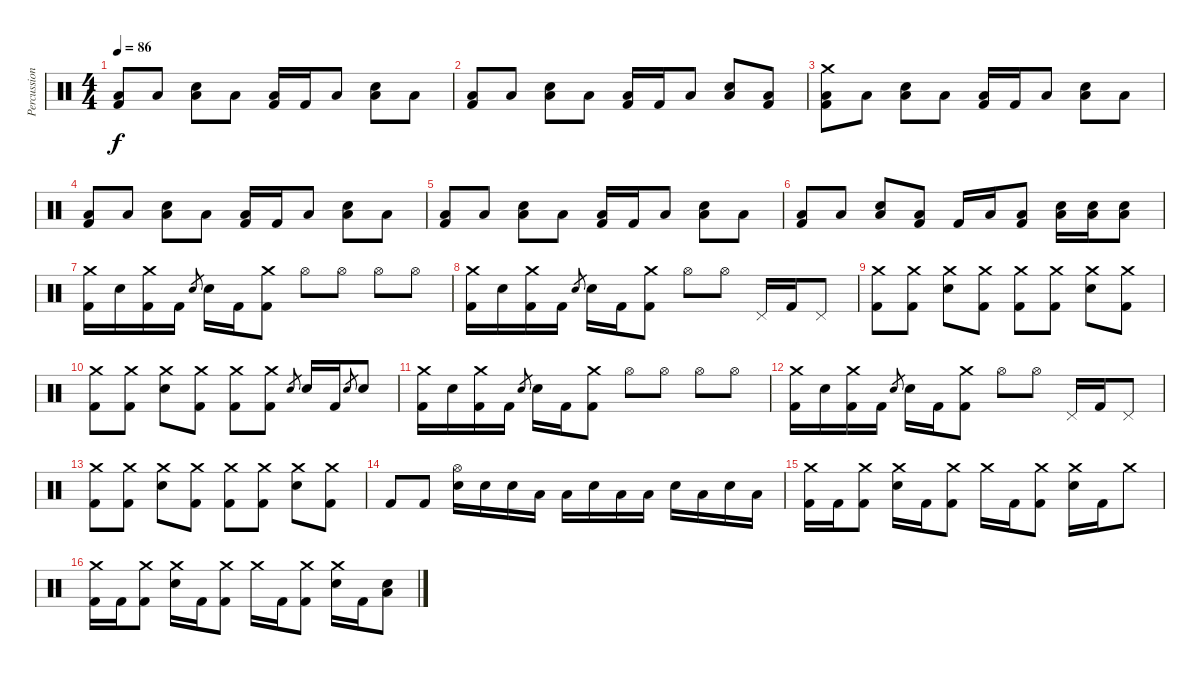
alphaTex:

\track ("Percussion" "Percussion") {instrument percussion}
\staff {score}
\articulation defaults
\ts (4 4)
\tempo 86
\clef neutral
\ks c
("Low Floor Tom (hit)" "Kick (hit) 2").8{dy f} "Low Floor Tom (hit)".8 ("Low Floor Tom (hit)" "Electric Snare (hit)").8 "Low Floor Tom (hit)".8 ("Low Floor Tom (hit)" "Kick (hit) 2").16 "Kick (hit) 2".16 "Low Floor Tom (hit)".8 ("Low Floor Tom (hit)" "Electric Snare (hit)").8 "Low Floor Tom (hit)".8 |
("Low Floor Tom (hit)" "Kick (hit) 2").8 "Low Floor Tom (hit)".8 ("Low Floor Tom (hit)" "Electric Snare (hit)").8 "Low Floor Tom (hit)".8 ("Low Floor Tom (hit)" "Kick (hit) 2").16 "Kick (hit) 2".16 "Low Floor Tom (hit)".8 ("Low Floor Tom (hit)" "Electric Snare (hit)").8 ("Low Floor Tom (hit)" "Kick (hit) 2").8 |
("Crash medium (hit)" "Low Floor Tom (hit)" "Kick (hit) 2").8 "Low Floor Tom (hit)".8 ("Low Floor Tom (hit)" "Electric Snare (hit)").8 "Low Floor Tom (hit)".8 ("Low Floor Tom (hit)" "Kick (hit) 2").16 "Kick (hit) 2".16 "Low Floor Tom (hit)".8 ("Low Floor Tom (hit)" "Electric Snare (hit)").8 "Low Floor Tom (hit)".8 |
("Low Floor Tom (hit)" "Kick (hit) 2").8 "Low Floor Tom (hit)".8 ("Low Floor Tom (hit)" "Electric Snare (hit)").8 "Low Floor Tom (hit)".8 ("Low Floor Tom (hit)" "Kick (hit) 2").16 "Kick (hit) 2".16 "Low Floor Tom (hit)".8 ("Low Floor Tom (hit)" "Electric Snare (hit)").8 "Low Floor Tom (hit)".8 |
("Low Floor Tom (hit)" "Kick (hit) 2").8 "Low Floor Tom (hit)".8 ("Low Floor Tom (hit)" "Electric Snare (hit)").8 "Low Floor Tom (hit)".8 ("Low Floor Tom (hit)" "Kick (hit) 2").16 "Kick (hit) 2".16 "Low Floor Tom (hit)".8 ("Low Floor Tom (hit)" "Electric Snare (hit)").8 "Low Floor Tom (hit)".8 |
("Low Floor Tom (hit)" "Kick (hit) 2").8 "Low Floor Tom (hit)".8 ("Low Floor Tom (hit)" "Electric Snare (hit)").8 ("Low Floor Tom (hit)" "Kick (hit) 2").8 "Kick (hit) 2".16 "Low Floor Tom (hit)".16 ("Low Floor Tom (hit)" "Kick (hit) 2").8 ("Low Floor Tom (hit)" "Electric Snare (hit)").16 ("Low Floor Tom (hit)" "Electric Snare (hit)").16 ("Low Floor Tom (hit)" "Electric Snare (hit)").8 |
("Crash medium (hit)" "Kick (hit) 2").16 "Electric Snare (hit)".16 ("Crash medium (hit)" "Kick (hit) 2").16 "Kick (hit) 2".16 "Electric Snare (hit)".8{gr} "Electric Snare (hit)".16 "Kick (hit) 2".16 ("Crash medium (hit)" "Kick (hit) 2").8 "Hi-Hat (open)".8 "Hi-Hat (open)".8 "Hi-Hat (open)".8 "Hi-Hat (open)".8 |
("Crash medium (hit)" "Kick (hit) 2").16 "Electric Snare (hit)".16 ("Crash medium (hit)" "Kick (hit) 2").16 "Kick (hit) 2".16 "Electric Snare (hit)".8{gr} "Electric Snare (hit)".16 "Kick (hit) 2".16 ("Crash medium (hit)" "Kick (hit) 2").8 "Hi-Hat (open)".8 "Hi-Hat (open)".8 "Pedal Hi-Hat (hit)".16 "Kick (hit) 2".16 "Pedal Hi-Hat (hit)".8 |
("Crash medium (hit)" "Kick (hit) 2").8 ("Crash medium (hit)" "Kick (hit) 2").8 ("Crash medium (hit)" "Electric Snare (hit)").8 ("Crash medium (hit)" "Kick (hit) 2").8 ("Crash medium (hit)" "Kick (hit) 2").8 ("Crash medium (hit)" "Kick (hit) 2").8 ("Crash medium (hit)" "Electric Snare (hit)").8 ("Crash medium (hit)" "Kick (hit) 2").8 |
("Crash medium (hit)" "Kick (hit) 2").8 ("Crash medium (hit)" "Kick (hit) 2").8 ("Crash medium (hit)" "Electric Snare (hit)").8 ("Crash medium (hit)" "Kick (hit) 2").8 ("Crash medium (hit)" "Kick (hit) 2").8 ("Crash medium (hit)" "Kick (hit) 2").8 "Electric Snare (hit)".8{gr} "Electric Snare (hit)".16 "Kick (hit) 2".16 "Electric Snare (hit)".8{gr} "Electric Snare (hit)".8 |
("Crash medium (hit)" "Kick (hit) 2").16 "Electric Snare (hit)".16 ("Crash medium (hit)" "Kick (hit) 2").16 "Kick (hit) 2".16 "Electric Snare (hit)".8{gr} "Electric Snare (hit)".16 "Kick (hit) 2".16 ("Crash medium (hit)" "Kick (hit) 2").8 "Hi-Hat (open)".8 "Hi-Hat (open)".8 "Hi-Hat (open)".8 "Hi-Hat (open)".8 |
("Crash medium (hit)" "Kick (hit) 2").16 "Electric Snare (hit)".16 ("Crash medium (hit)" "Kick (hit) 2").16 "Kick (hit) 2".16 "Electric Snare (hit)".8{gr} "Electric Snare (hit)".16 "Kick (hit) 2".16 ("Crash medium (hit)" "Kick (hit) 2").8 "Hi-Hat (open)".8 "Hi-Hat (open)".8 "Pedal Hi-Hat (hit)".16 "Kick (hit) 2".16 "Pedal Hi-Hat (hit)".8 |
("Crash medium (hit)" "Kick (hit) 2").8 ("Crash medium (hit)" "Kick (hit) 2").8 ("Crash medium (hit)" "Electric Snare (hit)").8 ("Crash medium (hit)" "Kick (hit) 2").8 ("Crash medium (hit)" "Kick (hit) 2").8 ("Crash medium (hit)" "Kick (hit) 2").8 ("Crash medium (hit)" "Electric Snare (hit)").8 ("Crash medium (hit)" "Kick (hit) 2").8 |
"Kick (hit) 2".8 "Kick (hit) 2".8 ("Hi-Hat (open)" "Electric Snare (hit)").16 "Electric Snare (hit)".16 "Electric Snare (hit)".16 "Low Tom (hit)".16 "Low Tom (hit)".16 "Electric Snare (hit)".16 "Low Tom (hit)".16 "Low Tom (hit)".16 "Electric Snare (hit)".16 "Low Floor Tom (hit)".16 "Electric Snare (hit)".16 "Low Floor Tom (hit)".16 |
("Crash medium (hit)" "Kick (hit) 2").16 "Kick (hit) 2".16 ("Crash medium (hit)" "Kick (hit) 2").8 ("Crash medium (hit)" "Electric Snare (hit)").16 "Kick (hit) 2".16 ("Crash medium (hit)" "Kick (hit) 2").8 "Crash medium (hit)".16 "Kick (hit) 2".16 ("Crash medium (hit)" "Kick (hit) 2").8 ("Crash medium (hit)" "Electric Snare (hit)").16 "Kick (hit) 2".16 "Crash medium (hit)".8 |
("Crash medium (hit)" "Kick (hit) 2").16 "Kick (hit) 2".16 ("Crash medium (hit)" "Kick (hit) 2").8 ("Crash medium (hit)" "Electric Snare (hit)").16 "Kick (hit) 2".16 ("Crash medium (hit)" "Kick (hit) 2").8 "Crash medium (hit)".16 "Kick (hit) 2".16 ("Crash medium (hit)" "Kick (hit) 2").8 ("Crash medium (hit)" "Electric Snare (hit)").16 "Kick (hit) 2".16 ("Low Floor Tom (hit)" "Electric Snare (hit)").8
